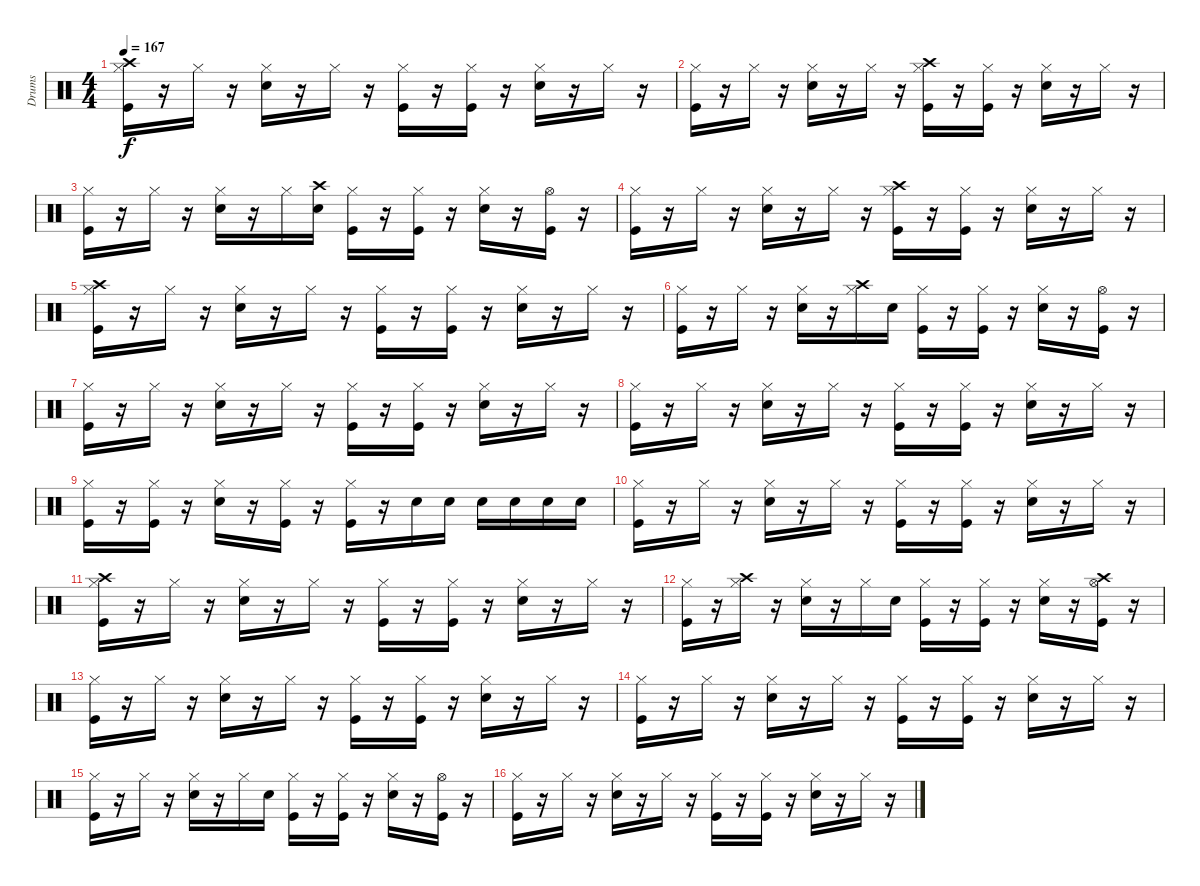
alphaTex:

\track ("Drums" "Drums") {instrument percussion}
\staff {score}
\articulation defaults
\ts (4 4)
\tempo 167
\clef neutral
\ks c
("Crash high (hit)" "Kick (hit)" "Hi-Hat (closed)").16{dy f} r.16 "Hi-Hat (closed)".16 r.16 ("Snare (hit) 2" "Hi-Hat (closed)").16 r.16 "Hi-Hat (closed)".16 r.16 ("Kick (hit)" "Hi-Hat (closed)").16 r.16 ("Kick (hit)" "Hi-Hat (closed)").16 r.16 ("Snare (hit) 2" "Hi-Hat (closed)").16 r.16 "Hi-Hat (closed)".16 r.16 |
("Kick (hit)" "Hi-Hat (closed)").16 r.16 "Hi-Hat (closed)".16 r.16 ("Snare (hit) 2" "Hi-Hat (closed)").16 r.16 "Hi-Hat (closed)".16 r.16 ("Crash high (hit)" "Kick (hit)" "Hi-Hat (closed)").16 r.16 ("Kick (hit)" "Hi-Hat (closed)").16 r.16 ("Snare (hit) 2" "Hi-Hat (closed)").16 r.16 "Hi-Hat (closed)".16 r.16 |
("Kick (hit)" "Hi-Hat (closed)").16 r.16 "Hi-Hat (closed)".16 r.16 ("Snare (hit) 2" "Hi-Hat (closed)").16 r.16 "Hi-Hat (closed)".16 ("Crash high (hit)" "Snare (hit) 2").16 ("Kick (hit)" "Hi-Hat (closed)").16 r.16 ("Kick (hit)" "Hi-Hat (closed)").16 r.16 ("Snare (hit) 2" "Hi-Hat (closed)").16 r.16 ("Kick (hit)" "Hi-Hat (open)").16 r.16 |
("Kick (hit)" "Hi-Hat (closed)").16 r.16 "Hi-Hat (closed)".16 r.16 ("Snare (hit) 2" "Hi-Hat (closed)").16 r.16 "Hi-Hat (closed)".16 r.16 ("Crash high (hit)" "Kick (hit)" "Hi-Hat (closed)").16 r.16 ("Kick (hit)" "Hi-Hat (closed)").16 r.16 ("Snare (hit) 2" "Hi-Hat (closed)").16 r.16 "Hi-Hat (closed)".16 r.16 |
("Kick (hit)" "Hi-Hat (closed)" "Crash high (hit)").16 r.16 "Hi-Hat (closed)".16 r.16 ("Snare (hit) 2" "Hi-Hat (closed)").16 r.16 "Hi-Hat (closed)".16 r.16 ("Kick (hit)" "Hi-Hat (closed)").16 r.16 ("Kick (hit)" "Hi-Hat (closed)").16 r.16 ("Snare (hit) 2" "Hi-Hat (closed)").16 r.16 "Hi-Hat (closed)".16 r.16 |
("Kick (hit)" "Hi-Hat (closed)").16 r.16 "Hi-Hat (closed)".16 r.16 ("Snare (hit) 2" "Hi-Hat (closed)").16 r.16 ("Crash high (hit)" "Hi-Hat (closed)").16 "Snare (hit) 2".16 ("Kick (hit)" "Hi-Hat (closed)").16 r.16 ("Kick (hit)" "Hi-Hat (closed)").16 r.16 ("Snare (hit) 2" "Hi-Hat (closed)").16 r.16 ("Kick (hit)" "Hi-Hat (open)").16 r.16 |
("Kick (hit)" "Hi-Hat (closed)").16 r.16 "Hi-Hat (closed)".16 r.16 ("Snare (hit) 2" "Hi-Hat (closed)").16 r.16 "Hi-Hat (closed)".16 r.16 ("Kick (hit)" "Hi-Hat (closed)").16 r.16 ("Kick (hit)" "Hi-Hat (closed)").16 r.16 ("Snare (hit) 2" "Hi-Hat (closed)").16 r.16 "Hi-Hat (closed)".16 r.16 |
("Kick (hit)" "Hi-Hat (closed)").16 r.16 "Hi-Hat (closed)".16 r.16 ("Snare (hit) 2" "Hi-Hat (closed)").16 r.16 "Hi-Hat (closed)".16 r.16 ("Kick (hit)" "Hi-Hat (closed)").16 r.16 ("Kick (hit)" "Hi-Hat (closed)").16 r.16 ("Snare (hit) 2" "Hi-Hat (closed)").16 r.16 "Hi-Hat (closed)".16 r.16 |
("Kick (hit)" "Hi-Hat (closed)").16 r.16 ("Kick (hit)" "Hi-Hat (closed)").16 r.16 ("Snare (hit) 2" "Hi-Hat (closed)").16 r.16 ("Kick (hit)" "Hi-Hat (closed)").16 r.16 ("Kick (hit)" "Hi-Hat (closed)").16 r.16 "Snare (hit) 2".16 "Snare (hit) 2".16 "Snare (hit) 2".16 "Snare (hit) 2".16 "Snare (hit) 2".16 "Snare (hit) 2".16 |
("Kick (hit)" "Hi-Hat (closed)").16 r.16 "Hi-Hat (closed)".16 r.16 ("Snare (hit) 2" "Hi-Hat (closed)").16 r.16 "Hi-Hat (closed)".16 r.16 ("Kick (hit)" "Hi-Hat (closed)").16 r.16 ("Kick (hit)" "Hi-Hat (closed)").16 r.16 ("Snare (hit) 2" "Hi-Hat (closed)").16 r.16 "Hi-Hat (closed)".16 r.16 |
("Kick (hit)" "Hi-Hat (closed)" "Crash high (hit)").16 r.16 "Hi-Hat (closed)".16 r.16 ("Snare (hit) 2" "Hi-Hat (closed)").16 r.16 "Hi-Hat (closed)".16 r.16 ("Kick (hit)" "Hi-Hat (closed)").16 r.16 ("Kick (hit)" "Hi-Hat (closed)").16 r.16 ("Snare (hit) 2" "Hi-Hat (closed)").16 r.16 "Hi-Hat (closed)".16 r.16 |
("Kick (hit)" "Hi-Hat (closed)").16 r.16 ("Crash high (hit)" "Hi-Hat (closed)").16 r.16 ("Snare (hit) 2" "Hi-Hat (closed)").16 r.16 "Hi-Hat (closed)".16 "Snare (hit) 2".16 ("Kick (hit)" "Hi-Hat (closed)").16 r.16 ("Kick (hit)" "Hi-Hat (closed)").16 r.16 ("Snare (hit) 2" "Hi-Hat (closed)").16 r.16 ("Crash high (hit)" "Kick (hit)" "Hi-Hat (open)").16 r.16 |
("Kick (hit)" "Hi-Hat (closed)").16 r.16 "Hi-Hat (closed)".16 r.16 ("Snare (hit) 2" "Hi-Hat (closed)").16 r.16 "Hi-Hat (closed)".16 r.16 ("Kick (hit)" "Hi-Hat (closed)").16 r.16 ("Kick (hit)" "Hi-Hat (closed)").16 r.16 ("Snare (hit) 2" "Hi-Hat (closed)").16 r.16 "Hi-Hat (closed)".16 r.16 |
("Kick (hit)" "Hi-Hat (closed)").16 r.16 "Hi-Hat (closed)".16 r.16 ("Snare (hit) 2" "Hi-Hat (closed)").16 r.16 "Hi-Hat (closed)".16 r.16 ("Kick (hit)" "Hi-Hat (closed)").16 r.16 ("Kick (hit)" "Hi-Hat (closed)").16 r.16 ("Snare (hit) 2" "Hi-Hat (closed)").16 r.16 "Hi-Hat (closed)".16 r.16 |
("Kick (hit)" "Hi-Hat (closed)").16 r.16 "Hi-Hat (closed)".16 r.16 ("Snare (hit) 2" "Hi-Hat (closed)").16 r.16 "Hi-Hat (closed)".16 "Snare (hit) 2".16 ("Kick (hit)" "Hi-Hat (closed)").16 r.16 ("Kick (hit)" "Hi-Hat (closed)").16 r.16 ("Snare (hit) 2" "Hi-Hat (closed)").16 r.16 ("Kick (hit)" "Hi-Hat (open)").16 r.16 |
("Kick (hit)" "Hi-Hat (closed)").16 r.16 "Hi-Hat (closed)".16 r.16 ("Snare (hit) 2" "Hi-Hat (closed)").16 r.16 "Hi-Hat (closed)".16 r.16 ("Kick (hit)" "Hi-Hat (closed)").16 r.16 ("Kick (hit)" "Hi-Hat (closed)").16 r.16 ("Snare (hit) 2" "Hi-Hat (closed)").16 r.16 "Hi-Hat (closed)".16 r.16
